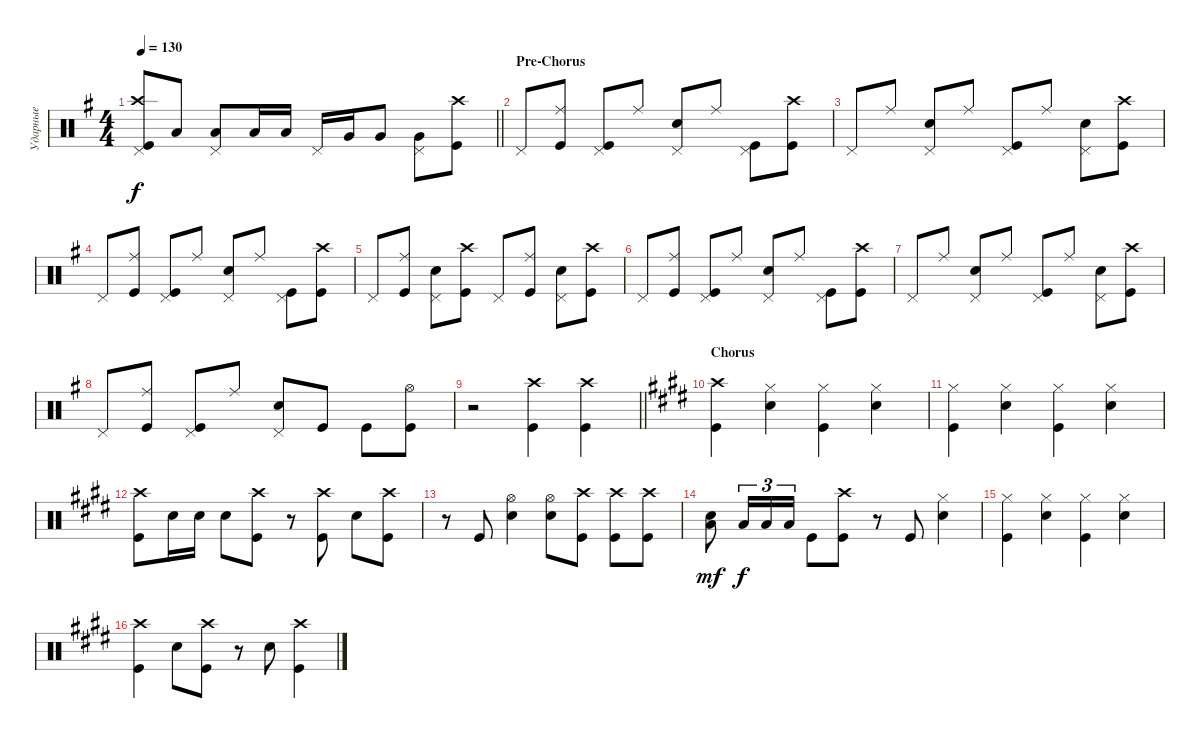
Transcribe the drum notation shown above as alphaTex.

\track ("Ударные" "Ударные") {instrument percussion}
\staff {score}
\articulation defaults
\ts (4 4)
\tempo 130
\clef neutral
\barLineRight lightlight
\ks eminor
("Kick (hit)" "Crash high (hit)" "Pedal Hi-Hat (hit)").8{dy f} "Low Tom (hit)".8 ("Low Tom (hit)" "Pedal Hi-Hat (hit)").8 "Low Tom (hit)".16 "Low Tom (hit)".16 "Pedal Hi-Hat (hit)".16 "Very Low Tom (hit)".16 "Very Low Tom (hit)".8 ("Very Low Tom (hit)" "Pedal Hi-Hat (hit)").8 ("Kick (hit)" "Crash high (hit)").8 |
\section ("" "Pre-Chorus")
"Pedal Hi-Hat (hit)".8 ("Kick (hit)" "Ride (middle)").8 ("Kick (hit)" "Pedal Hi-Hat (hit)").8 "Ride (middle)".8 ("Snare (hit) 2" "Pedal Hi-Hat (hit)").8 "Ride (middle)".8 ("Kick (hit)" "Pedal Hi-Hat (hit)").8 ("Kick (hit)" "Crash high (hit)").8 |
"Pedal Hi-Hat (hit)".8 "Ride (middle)".8 ("Snare (hit) 2" "Pedal Hi-Hat (hit)").8 "Ride (middle)".8 ("Kick (hit)" "Pedal Hi-Hat (hit)").8 "Ride (middle)".8 ("Snare (hit) 2" "Pedal Hi-Hat (hit)").8 ("Kick (hit)" "Crash high (hit)").8 |
"Pedal Hi-Hat (hit)".8 ("Kick (hit)" "Ride (middle)").8 ("Kick (hit)" "Pedal Hi-Hat (hit)").8 "Ride (middle)".8 ("Snare (hit) 2" "Pedal Hi-Hat (hit)").8 "Ride (middle)".8 ("Kick (hit)" "Pedal Hi-Hat (hit)").8 ("Kick (hit)" "Crash high (hit)").8 |
"Pedal Hi-Hat (hit)".8 ("Kick (hit)" "Ride (middle)").8 ("Snare (hit) 2" "Pedal Hi-Hat (hit)").8 ("Kick (hit)" "Crash high (hit)").8 "Pedal Hi-Hat (hit)".8 ("Kick (hit)" "Ride (middle)").8 ("Snare (hit) 2" "Pedal Hi-Hat (hit)").8 ("Kick (hit)" "Crash high (hit)").8 |
"Pedal Hi-Hat (hit)".8 ("Kick (hit)" "Ride (middle)").8 ("Kick (hit)" "Pedal Hi-Hat (hit)").8 "Ride (middle)".8 ("Snare (hit) 2" "Pedal Hi-Hat (hit)").8 "Ride (middle)".8 ("Kick (hit)" "Pedal Hi-Hat (hit)").8 ("Kick (hit)" "Crash high (hit)").8 |
"Pedal Hi-Hat (hit)".8 "Ride (middle)".8 ("Snare (hit) 2" "Pedal Hi-Hat (hit)").8 "Ride (middle)".8 ("Kick (hit)" "Pedal Hi-Hat (hit)").8 "Ride (middle)".8 ("Snare (hit) 2" "Pedal Hi-Hat (hit)").8 ("Kick (hit)" "Crash high (hit)").8 |
"Pedal Hi-Hat (hit)".8 ("Kick (hit)" "Ride (middle)").8 ("Kick (hit)" "Pedal Hi-Hat (hit)").8 "Ride (middle)".8 ("Snare (hit) 2" "Pedal Hi-Hat (hit)").8 "Kick (hit)".8 "Kick (hit)".8 ("Kick (hit)" "Hi-Hat (open)").8 |
\barLineRight lightlight
r.2 ("Kick (hit)" "Crash high (hit)").4 ("Kick (hit)" "Crash high (hit)").4 |
\section ("" "Chorus")
\ks c#minor
("Kick (hit)" "Crash high (hit)").4 ("Snare (hit) 2" "Hi-Hat (closed)").4 ("Kick (hit)" "Hi-Hat (closed)").4 ("Snare (hit) 2" "Hi-Hat (closed)").4 |
("Kick (hit)" "Hi-Hat (closed)").4 ("Snare (hit) 2" "Hi-Hat (closed)").4 ("Kick (hit)" "Hi-Hat (closed)").4 ("Snare (hit) 2" "Hi-Hat (closed)").4 |
("Kick (hit)" "Crash high (hit)").8 "Snare (hit) 2".16 "Snare (hit) 2".16 "Snare (hit) 2".8 ("Kick (hit)" "Crash high (hit)").8 r.8 ("Kick (hit)" "Crash high (hit)").8 "Snare (hit) 2".8 ("Kick (hit)" "Crash high (hit)").8 |
r.8 "Kick (hit)".8 ("Snare (hit) 2" "Hi-Hat (open)").4 ("Snare (hit) 2" "Hi-Hat (open)").8 ("Crash high (hit)" "Kick (hit)").8 ("Kick (hit)" "Crash high (hit)").8 ("Kick (hit)" "Crash high (hit)").8 |
("Low Tom (hit)" "Snare (hit) 2").8{bd 120 dy mf} "Low Tom (hit)".16{tu (3 2) dy f} "Low Tom (hit)".16{tu (3 2)} "Low Tom (hit)".16{tu (3 2)} "Kick (hit)".8 ("Kick (hit)" "Crash high (hit)").8 r.8 "Kick (hit)".8 ("Snare (hit) 2" "Hi-Hat (closed)").4 |
("Kick (hit)" "Hi-Hat (closed)").4 ("Snare (hit) 2" "Hi-Hat (closed)").4 ("Kick (hit)" "Hi-Hat (closed)").4 ("Snare (hit) 2" "Hi-Hat (closed)").4 |
("Kick (hit)" "Crash high (hit)").4 "Snare (hit) 2".8 ("Kick (hit)" "Crash high (hit)").8 r.8 "Snare (hit) 2".8 ("Kick (hit)" "Crash high (hit)").4
